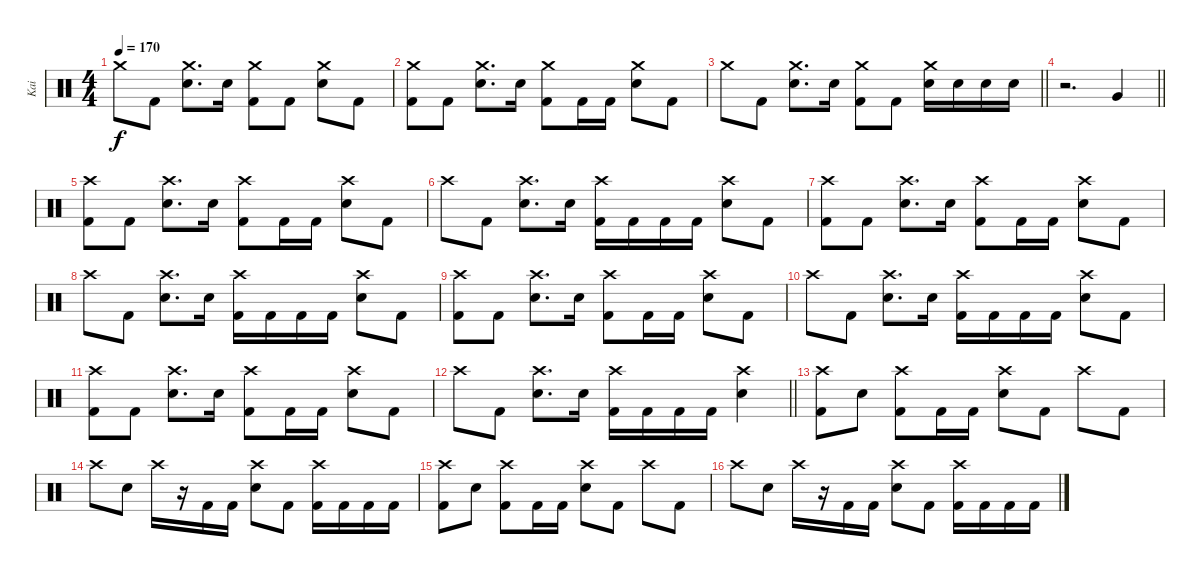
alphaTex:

\track ("Kai" "Kai") {instrument percussion}
\staff {score}
\articulation defaults
\ts (4 4)
\tempo 170
\clef neutral
\ks c "Crash medium (hit)".8{dy f} "Kick (hit) 2".8
("Crash medium (hit)" "Electric Snare (hit)").8{d} "Electric Snare (hit)".16 ("Crash medium (hit)" "Kick (hit) 2").8 "Kick (hit) 2".8 ("Crash medium (hit)" "Electric Snare (hit)").8 "Kick (hit) 2".8 |
("Crash medium (hit)" "Kick (hit) 2").8 "Kick (hit) 2".8 ("Crash medium (hit)" "Electric Snare (hit)").8{d} "Electric Snare (hit)".16 ("Crash medium (hit)" "Kick (hit) 2").8 "Kick (hit) 2".16 "Kick (hit) 2".16 ("Crash medium (hit)" "Electric Snare (hit)").8 "Kick (hit) 2".8 |
\barLineRight lightlight "Crash medium (hit)".8 "Kick (hit) 2".8
("Crash medium (hit)" "Electric Snare (hit)").8{d} "Electric Snare (hit)".16 ("Crash medium (hit)" "Kick (hit) 2").8 "Kick (hit) 2".8 ("Crash medium (hit)" "Electric Snare (hit)").16 "Electric Snare (hit)".16 "Electric Snare (hit)".16 "Electric Snare (hit)".16 |
\barLineRight lightlight
r.2{d} "Very Low Tom (hit)".4 |
\section ("" "")
("Crash high (hit)" "Kick (hit) 2").8 "Kick (hit) 2".8 ("Crash high (hit)" "Electric Snare (hit)").8{d} "Electric Snare (hit)".16 ("Crash high (hit)" "Kick (hit) 2").8 "Kick (hit) 2".16 "Kick (hit) 2".16 ("Crash high (hit)" "Electric Snare (hit)").8 "Kick (hit) 2".8 |
"Crash high (hit)".8 "Kick (hit) 2".8 ("Crash high (hit)" "Electric Snare (hit)").8{d} "Electric Snare (hit)".16 ("Crash high (hit)" "Kick (hit) 2").16 "Kick (hit) 2".16 "Kick (hit) 2".16 "Kick (hit) 2".16 ("Crash high (hit)" "Electric Snare (hit)").8 "Kick (hit) 2".8 |
("Crash high (hit)" "Kick (hit) 2").8 "Kick (hit) 2".8 ("Crash high (hit)" "Electric Snare (hit)").8{d} "Electric Snare (hit)".16 ("Crash high (hit)" "Kick (hit) 2").8 "Kick (hit) 2".16 "Kick (hit) 2".16 ("Crash high (hit)" "Electric Snare (hit)").8 "Kick (hit) 2".8 |
"Crash high (hit)".8 "Kick (hit) 2".8 ("Crash high (hit)" "Electric Snare (hit)").8{d} "Electric Snare (hit)".16 ("Crash high (hit)" "Kick (hit) 2").16 "Kick (hit) 2".16 "Kick (hit) 2".16 "Kick (hit) 2".16 ("Crash high (hit)" "Electric Snare (hit)").8 "Kick (hit) 2".8 |
("Crash high (hit)" "Kick (hit) 2").8 "Kick (hit) 2".8 ("Crash high (hit)" "Electric Snare (hit)").8{d} "Electric Snare (hit)".16 ("Crash high (hit)" "Kick (hit) 2").8 "Kick (hit) 2".16 "Kick (hit) 2".16 ("Crash high (hit)" "Electric Snare (hit)").8 "Kick (hit) 2".8 |
"Crash high (hit)".8 "Kick (hit) 2".8 ("Crash high (hit)" "Electric Snare (hit)").8{d} "Electric Snare (hit)".16 ("Crash high (hit)" "Kick (hit) 2").16 "Kick (hit) 2".16 "Kick (hit) 2".16 "Kick (hit) 2".16 ("Crash high (hit)" "Electric Snare (hit)").8 "Kick (hit) 2".8 |
("Crash high (hit)" "Kick (hit) 2").8 "Kick (hit) 2".8 ("Crash high (hit)" "Electric Snare (hit)").8{d} "Electric Snare (hit)".16 ("Crash high (hit)" "Kick (hit) 2").8 "Kick (hit) 2".16 "Kick (hit) 2".16 ("Crash high (hit)" "Electric Snare (hit)").8 "Kick (hit) 2".8 |
\barLineRight lightlight "Crash high (hit)".8 "Kick (hit) 2".8
("Crash high (hit)" "Electric Snare (hit)").8{d} "Electric Snare (hit)".16 ("Crash high (hit)" "Kick (hit) 2").16 "Kick (hit) 2".16 "Kick (hit) 2".16 "Kick (hit) 2".16 ("Crash high (hit)" "Electric Snare (hit)").4 |
\section ("" "")
("Crash high (hit)" "Kick (hit) 2").8 "Electric Snare (hit)".8 ("Crash high (hit)" "Kick (hit) 2").8 "Kick (hit) 2".16 "Kick (hit) 2".16 ("Crash high (hit)" "Electric Snare (hit)").8 "Kick (hit) 2".8 "Crash high (hit)".8 "Kick (hit) 2".8 |
"Crash high (hit)".8 "Electric Snare (hit)".8 "Crash high (hit)".16 r.16 "Kick (hit) 2".16 "Kick (hit) 2".16 ("Crash high (hit)" "Electric Snare (hit)").8 "Kick (hit) 2".8 ("Crash high (hit)" "Kick (hit) 2").16 "Kick (hit) 2".16 "Kick (hit) 2".16 "Kick (hit) 2".16 |
("Crash high (hit)" "Kick (hit) 2").8 "Electric Snare (hit)".8 ("Crash high (hit)" "Kick (hit) 2").8 "Kick (hit) 2".16 "Kick (hit) 2".16 ("Crash high (hit)" "Electric Snare (hit)").8 "Kick (hit) 2".8 "Crash high (hit)".8 "Kick (hit) 2".8 |
"Crash high (hit)".8 "Electric Snare (hit)".8 "Crash high (hit)".16 r.16 "Kick (hit) 2".16 "Kick (hit) 2".16 ("Crash high (hit)" "Electric Snare (hit)").8 "Kick (hit) 2".8 ("Crash high (hit)" "Kick (hit) 2").16 "Kick (hit) 2".16 "Kick (hit) 2".16 "Kick (hit) 2".16
